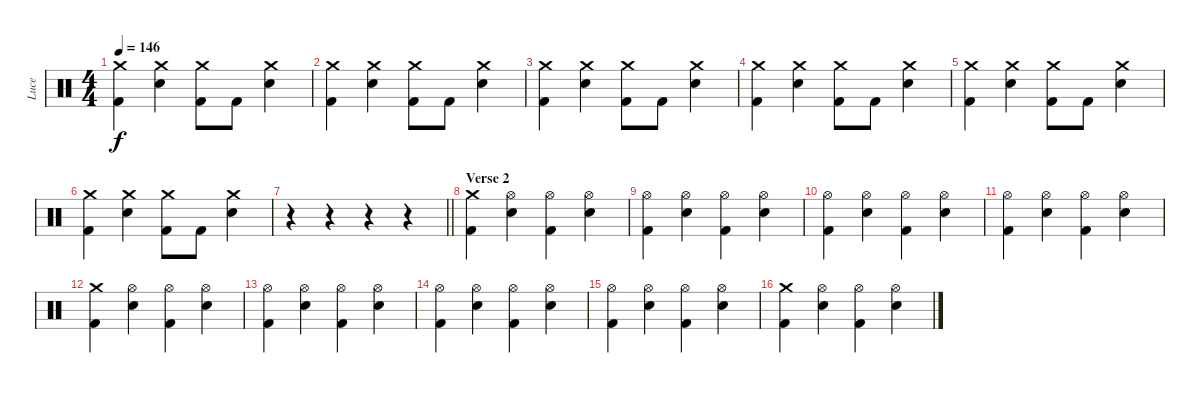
\track ("Luce" "Luce") {instrument percussion}
\staff {score}
\articulation defaults
\ts (4 4)
\tempo 146
\clef neutral
\ks c
("Crash medium (hit)" "Kick (hit) 2").4{dy f} ("Crash medium (hit)" "Electric Snare (hit)").4 ("Kick (hit) 2" "Crash medium (hit)").8 "Kick (hit) 2".8 ("Crash medium (hit)" "Electric Snare (hit)").4 |
("Kick (hit) 2" "Crash medium (hit)").4 ("Crash medium (hit)" "Electric Snare (hit)").4 ("Kick (hit) 2" "Crash medium (hit)").8 "Kick (hit) 2".8 ("Crash medium (hit)" "Electric Snare (hit)").4 |
("Kick (hit) 2" "Crash medium (hit)").4 ("Electric Snare (hit)" "Crash medium (hit)").4 ("Kick (hit) 2" "Crash medium (hit)").8 "Kick (hit) 2".8 ("Electric Snare (hit)" "Crash medium (hit)").4 |
("Kick (hit) 2" "Crash medium (hit)").4 ("Electric Snare (hit)" "Crash medium (hit)").4 ("Kick (hit) 2" "Crash medium (hit)").8 "Kick (hit) 2".8 ("Electric Snare (hit)" "Crash medium (hit)").4 |
("Kick (hit) 2" "Crash medium (hit)").4 ("Electric Snare (hit)" "Crash medium (hit)").4 ("Kick (hit) 2" "Crash medium (hit)").8 "Kick (hit) 2".8 ("Electric Snare (hit)" "Crash medium (hit)").4 |
("Crash medium (hit)" "Kick (hit) 2").4 ("Crash medium (hit)" "Electric Snare (hit)").4 ("Kick (hit) 2" "Crash medium (hit)").8 "Kick (hit) 2".8 ("Crash medium (hit)" "Electric Snare (hit)").4 |
\barLineRight lightlight
r.4 r.4 r.4 r.4 |
\section ("" "Verse 2")
("Crash medium (hit)" "Kick (hit) 2").4 ("Hi-Hat (open)" "Electric Snare (hit)").4 ("Hi-Hat (open)" "Kick (hit) 2").4 ("Hi-Hat (open)" "Electric Snare (hit)").4 |
("Hi-Hat (open)" "Kick (hit) 2").4 ("Hi-Hat (open)" "Electric Snare (hit)").4 ("Hi-Hat (open)" "Kick (hit) 2").4 ("Hi-Hat (open)" "Electric Snare (hit)").4 |
("Kick (hit) 2" "Hi-Hat (open)").4 ("Electric Snare (hit)" "Hi-Hat (open)").4 ("Kick (hit) 2" "Hi-Hat (open)").4 ("Electric Snare (hit)" "Hi-Hat (open)").4 |
("Kick (hit) 2" "Hi-Hat (open)").4 ("Electric Snare (hit)" "Hi-Hat (open)").4 ("Kick (hit) 2" "Hi-Hat (open)").4 ("Electric Snare (hit)" "Hi-Hat (open)").4 |
("Crash medium (hit)" "Kick (hit) 2").4 ("Hi-Hat (open)" "Electric Snare (hit)").4 ("Hi-Hat (open)" "Kick (hit) 2").4 ("Hi-Hat (open)" "Electric Snare (hit)").4 |
("Hi-Hat (open)" "Kick (hit) 2").4 ("Hi-Hat (open)" "Electric Snare (hit)").4 ("Hi-Hat (open)" "Kick (hit) 2").4 ("Hi-Hat (open)" "Electric Snare (hit)").4 |
("Kick (hit) 2" "Hi-Hat (open)").4 ("Electric Snare (hit)" "Hi-Hat (open)").4 ("Kick (hit) 2" "Hi-Hat (open)").4 ("Electric Snare (hit)" "Hi-Hat (open)").4 |
("Kick (hit) 2" "Hi-Hat (open)").4 ("Electric Snare (hit)" "Hi-Hat (open)").4 ("Kick (hit) 2" "Hi-Hat (open)").4 ("Electric Snare (hit)" "Hi-Hat (open)").4 |
("Crash medium (hit)" "Kick (hit) 2").4 ("Hi-Hat (open)" "Electric Snare (hit)").4 ("Hi-Hat (open)" "Kick (hit) 2").4 ("Hi-Hat (open)" "Electric Snare (hit)").4
